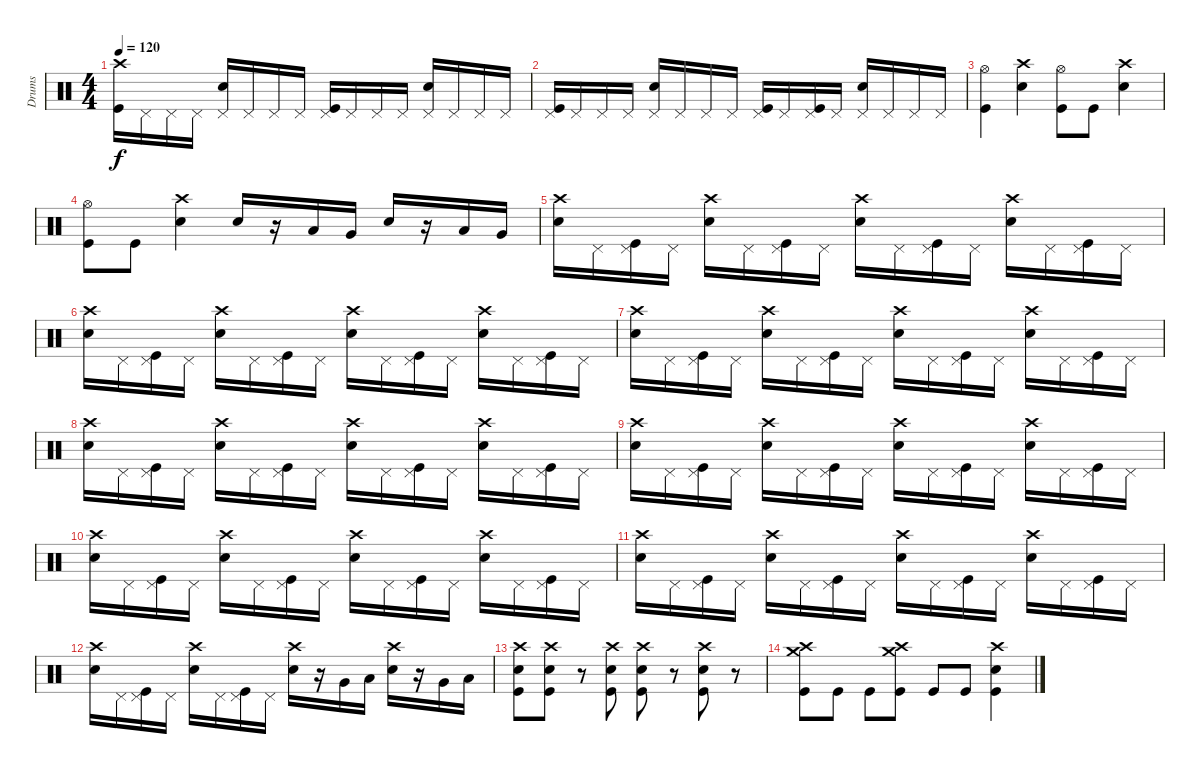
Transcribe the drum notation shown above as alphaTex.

\track ("Drums" "Drums") {instrument percussion}
\staff {score}
\articulation defaults
\ts (4 4)
\tempo 120
\clef neutral
\ks c
("Crash high (hit)" "Kick (hit)").16{dy f} "Pedal Hi-Hat (hit)".16 "Pedal Hi-Hat (hit)".16 "Pedal Hi-Hat (hit)".16 ("Pedal Hi-Hat (hit)" "Snare (hit) 2").16 "Pedal Hi-Hat (hit)".16 "Pedal Hi-Hat (hit)".16 "Pedal Hi-Hat (hit)".16 ("Pedal Hi-Hat (hit)" "Kick (hit)").16 "Pedal Hi-Hat (hit)".16 "Pedal Hi-Hat (hit)".16 "Pedal Hi-Hat (hit)".16 ("Pedal Hi-Hat (hit)" "Snare (hit) 2").16 "Pedal Hi-Hat (hit)".16 "Pedal Hi-Hat (hit)".16 "Pedal Hi-Hat (hit)".16 |
("Pedal Hi-Hat (hit)" "Kick (hit)").16 "Pedal Hi-Hat (hit)".16 "Pedal Hi-Hat (hit)".16 "Pedal Hi-Hat (hit)".16 ("Pedal Hi-Hat (hit)" "Snare (hit) 2").16 "Pedal Hi-Hat (hit)".16 "Pedal Hi-Hat (hit)".16 "Pedal Hi-Hat (hit)".16 ("Pedal Hi-Hat (hit)" "Kick (hit)").16 "Pedal Hi-Hat (hit)".16 ("Pedal Hi-Hat (hit)" "Kick (hit)").16 "Pedal Hi-Hat (hit)".16 ("Pedal Hi-Hat (hit)" "Snare (hit) 2").16 "Pedal Hi-Hat (hit)".16 "Pedal Hi-Hat (hit)".16 "Pedal Hi-Hat (hit)".16 |
("Hi-Hat (open)" "Kick (hit)").4 ("Crash high (hit)" "Snare (hit) 2").4 ("Hi-Hat (open)" "Kick (hit)").8 "Kick (hit)".8 ("Crash high (hit)" "Snare (hit) 2").4 |
("Hi-Hat (open)" "Kick (hit)").8 "Kick (hit)".8 ("Crash high (hit)" "Snare (hit) 2").4 "Snare (hit) 2".16 r.16 "Low Tom (hit)".16 "Very Low Tom (hit)".16 "Snare (hit) 2".16 r.16 "Low Tom (hit)".16 "Very Low Tom (hit)".16 |
("Crash high (hit)" "Snare (hit) 2").16 "Pedal Hi-Hat (hit)".16 ("Pedal Hi-Hat (hit)" "Kick (hit)").16 "Pedal Hi-Hat (hit)".16 ("Crash high (hit)" "Snare (hit) 2").16 "Pedal Hi-Hat (hit)".16 ("Pedal Hi-Hat (hit)" "Kick (hit)").16 "Pedal Hi-Hat (hit)".16 ("Crash high (hit)" "Snare (hit) 2").16 "Pedal Hi-Hat (hit)".16 ("Pedal Hi-Hat (hit)" "Kick (hit)").16 "Pedal Hi-Hat (hit)".16 ("Crash high (hit)" "Snare (hit) 2").16 "Pedal Hi-Hat (hit)".16 ("Pedal Hi-Hat (hit)" "Kick (hit)").16 "Pedal Hi-Hat (hit)".16 |
("Crash high (hit)" "Snare (hit) 2").16 "Pedal Hi-Hat (hit)".16 ("Pedal Hi-Hat (hit)" "Kick (hit)").16 "Pedal Hi-Hat (hit)".16 ("Crash high (hit)" "Snare (hit) 2").16 "Pedal Hi-Hat (hit)".16 ("Pedal Hi-Hat (hit)" "Kick (hit)").16 "Pedal Hi-Hat (hit)".16 ("Crash high (hit)" "Snare (hit) 2").16 "Pedal Hi-Hat (hit)".16 ("Pedal Hi-Hat (hit)" "Kick (hit)").16 "Pedal Hi-Hat (hit)".16 ("Crash high (hit)" "Snare (hit) 2").16 "Pedal Hi-Hat (hit)".16 ("Pedal Hi-Hat (hit)" "Kick (hit)").16 "Pedal Hi-Hat (hit)".16 |
("Crash high (hit)" "Snare (hit) 2").16 "Pedal Hi-Hat (hit)".16 ("Pedal Hi-Hat (hit)" "Kick (hit)").16 "Pedal Hi-Hat (hit)".16 ("Crash high (hit)" "Snare (hit) 2").16 "Pedal Hi-Hat (hit)".16 ("Pedal Hi-Hat (hit)" "Kick (hit)").16 "Pedal Hi-Hat (hit)".16 ("Crash high (hit)" "Snare (hit) 2").16 "Pedal Hi-Hat (hit)".16 ("Pedal Hi-Hat (hit)" "Kick (hit)").16 "Pedal Hi-Hat (hit)".16 ("Crash high (hit)" "Snare (hit) 2").16 "Pedal Hi-Hat (hit)".16 ("Pedal Hi-Hat (hit)" "Kick (hit)").16 "Pedal Hi-Hat (hit)".16 |
("Crash high (hit)" "Snare (hit) 2").16 "Pedal Hi-Hat (hit)".16 ("Pedal Hi-Hat (hit)" "Kick (hit)").16 "Pedal Hi-Hat (hit)".16 ("Crash high (hit)" "Snare (hit) 2").16 "Pedal Hi-Hat (hit)".16 ("Pedal Hi-Hat (hit)" "Kick (hit)").16 "Pedal Hi-Hat (hit)".16 ("Crash high (hit)" "Snare (hit) 2").16 "Pedal Hi-Hat (hit)".16 ("Pedal Hi-Hat (hit)" "Kick (hit)").16 "Pedal Hi-Hat (hit)".16 ("Crash high (hit)" "Snare (hit) 2").16 "Pedal Hi-Hat (hit)".16 ("Pedal Hi-Hat (hit)" "Kick (hit)").16 "Pedal Hi-Hat (hit)".16 |
("Crash high (hit)" "Snare (hit) 2").16 "Pedal Hi-Hat (hit)".16 ("Pedal Hi-Hat (hit)" "Kick (hit)").16 "Pedal Hi-Hat (hit)".16 ("Crash high (hit)" "Snare (hit) 2").16 "Pedal Hi-Hat (hit)".16 ("Pedal Hi-Hat (hit)" "Kick (hit)").16 "Pedal Hi-Hat (hit)".16 ("Crash high (hit)" "Snare (hit) 2").16 "Pedal Hi-Hat (hit)".16 ("Pedal Hi-Hat (hit)" "Kick (hit)").16 "Pedal Hi-Hat (hit)".16 ("Crash high (hit)" "Snare (hit) 2").16 "Pedal Hi-Hat (hit)".16 ("Pedal Hi-Hat (hit)" "Kick (hit)").16 "Pedal Hi-Hat (hit)".16 |
("Crash high (hit)" "Snare (hit) 2").16 "Pedal Hi-Hat (hit)".16 ("Pedal Hi-Hat (hit)" "Kick (hit)").16 "Pedal Hi-Hat (hit)".16 ("Crash high (hit)" "Snare (hit) 2").16 "Pedal Hi-Hat (hit)".16 ("Pedal Hi-Hat (hit)" "Kick (hit)").16 "Pedal Hi-Hat (hit)".16 ("Crash high (hit)" "Snare (hit) 2").16 "Pedal Hi-Hat (hit)".16 ("Pedal Hi-Hat (hit)" "Kick (hit)").16 "Pedal Hi-Hat (hit)".16 ("Crash high (hit)" "Snare (hit) 2").16 "Pedal Hi-Hat (hit)".16 ("Pedal Hi-Hat (hit)" "Kick (hit)").16 "Pedal Hi-Hat (hit)".16 |
("Crash high (hit)" "Snare (hit) 2").16 "Pedal Hi-Hat (hit)".16 ("Pedal Hi-Hat (hit)" "Kick (hit)").16 "Pedal Hi-Hat (hit)".16 ("Crash high (hit)" "Snare (hit) 2").16 "Pedal Hi-Hat (hit)".16 ("Pedal Hi-Hat (hit)" "Kick (hit)").16 "Pedal Hi-Hat (hit)".16 ("Crash high (hit)" "Snare (hit) 2").16 "Pedal Hi-Hat (hit)".16 ("Pedal Hi-Hat (hit)" "Kick (hit)").16 "Pedal Hi-Hat (hit)".16 ("Crash high (hit)" "Snare (hit) 2").16 "Pedal Hi-Hat (hit)".16 ("Pedal Hi-Hat (hit)" "Kick (hit)").16 "Pedal Hi-Hat (hit)".16 |
("Crash high (hit)" "Snare (hit) 2").16 "Pedal Hi-Hat (hit)".16 ("Pedal Hi-Hat (hit)" "Kick (hit)").16 "Pedal Hi-Hat (hit)".16 ("Crash high (hit)" "Snare (hit) 2").16 "Pedal Hi-Hat (hit)".16 ("Pedal Hi-Hat (hit)" "Kick (hit)").16 "Pedal Hi-Hat (hit)".16 ("Crash high (hit)" "Snare (hit) 2").16 r.16 "Very Low Tom (hit)".16 "Low Tom (hit)".16 ("Crash high (hit)" "Snare (hit) 2").16 r.16 "Very Low Tom (hit)".16 "Low Tom (hit)".16 |
("Crash high (hit)" "Snare (hit) 2" "Kick (hit)").8 ("Crash high (hit)" "Snare (hit) 2" "Kick (hit)").8 r.8 ("Crash high (hit)" "Snare (hit) 2" "Kick (hit)").8 ("Crash high (hit)" "Snare (hit) 2" "Kick (hit)").8 r.8 ("Crash high (hit)" "Snare (hit) 2" "Kick (hit)").8 r.8 |
("Crash high (hit)" "Crash medium (hit)" "Kick (hit)").8 "Kick (hit)".8 "Kick (hit)".8 ("Crash high (hit)" "Crash medium (hit)" "Kick (hit)").8 "Kick (hit)".8 "Kick (hit)".8 ("Crash high (hit)" "Snare (hit) 2" "Kick (hit)").4
